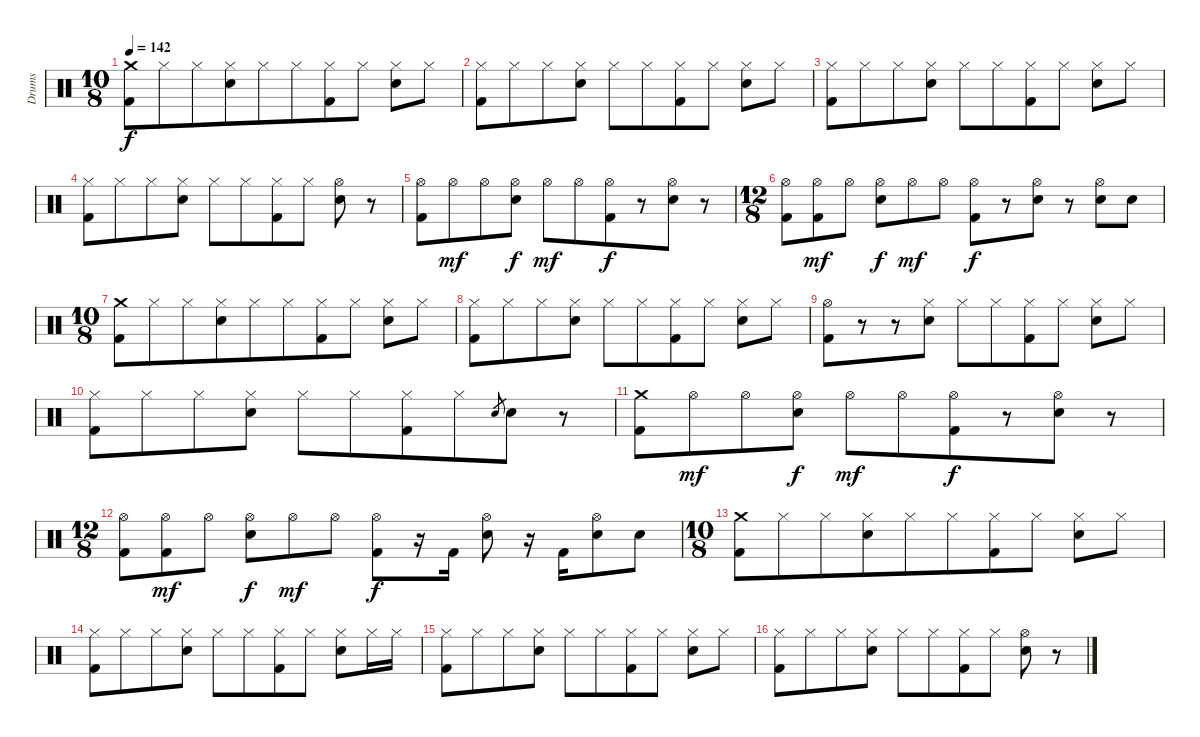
\track ("Drums" "Drums") {instrument percussion}
\staff {score}
\articulation defaults
\ts (10 8)
\tempo 142
\clef neutral
\ks c
("Crash medium (hit)" "Kick (hit) 2").8{dy f beam merge} "Hi-Hat (closed)".8{beam merge} "Hi-Hat (closed)".8 ("Hi-Hat (closed)" "Electric Snare (hit)").8{beam merge} "Hi-Hat (closed)".8{beam merge} "Hi-Hat (closed)".8 ("Hi-Hat (closed)" "Kick (hit) 2").8{beam merge} "Hi-Hat (closed)".8{beam split} ("Hi-Hat (closed)" "Electric Snare (hit)").8{beam merge} "Hi-Hat (closed)".8 |
("Hi-Hat (closed)" "Kick (hit) 2").8 "Hi-Hat (closed)".8 "Hi-Hat (closed)".8 ("Hi-Hat (closed)" "Electric Snare (hit)").8 "Hi-Hat (closed)".8 "Hi-Hat (closed)".8 ("Hi-Hat (closed)" "Kick (hit) 2").8{beam merge} "Hi-Hat (closed)".8{beam split} ("Hi-Hat (closed)" "Electric Snare (hit)").8{beam merge} "Hi-Hat (closed)".8 |
("Hi-Hat (closed)" "Kick (hit) 2").8 "Hi-Hat (closed)".8 "Hi-Hat (closed)".8 ("Hi-Hat (closed)" "Electric Snare (hit)").8 "Hi-Hat (closed)".8 "Hi-Hat (closed)".8 ("Hi-Hat (closed)" "Kick (hit) 2").8{beam merge} "Hi-Hat (closed)".8{beam split} ("Hi-Hat (closed)" "Electric Snare (hit)").8{beam merge} "Hi-Hat (closed)".8 |
("Hi-Hat (closed)" "Kick (hit) 2").8 "Hi-Hat (closed)".8 "Hi-Hat (closed)".8 ("Hi-Hat (closed)" "Electric Snare (hit)").8 "Hi-Hat (closed)".8 "Hi-Hat (closed)".8 ("Hi-Hat (closed)" "Kick (hit) 2").8{beam merge} "Hi-Hat (closed)".8{beam split} ("Hi-Hat (open)" "Electric Snare (hit)").8 r.8 |
("Hi-Hat (open)" "Kick (hit) 2").8 "Hi-Hat (open)".8{dy mf} "Hi-Hat (open)".8 ("Hi-Hat (open)" "Electric Snare (hit)").8{dy f} "Hi-Hat (open)".8{dy mf} "Hi-Hat (open)".8 ("Hi-Hat (open)" "Kick (hit) 2").8{dy f beam merge} r.8{beam split} ("Hi-Hat (open)" "Electric Snare (hit)").8 r.8 |
\ts (12 8)
("Hi-Hat (open)" "Kick (hit) 2").8 ("Hi-Hat (open)" "Kick (hit) 2").8{dy mf} "Hi-Hat (open)".8 ("Hi-Hat (open)" "Electric Snare (hit)").8{dy f} "Hi-Hat (open)".8{dy mf} "Hi-Hat (open)".8 ("Hi-Hat (open)" "Kick (hit) 2").8{dy f beam merge} r.8{beam split} ("Hi-Hat (open)" "Electric Snare (hit)").8 r.8 ("Hi-Hat (open)" "Electric Snare (hit)").8 "Electric Snare (hit)".8 |
\ts (10 8)
("Crash medium (hit)" "Kick (hit) 2").8{beam merge} "Hi-Hat (closed)".8{beam merge} "Hi-Hat (closed)".8 ("Hi-Hat (closed)" "Electric Snare (hit)").8{beam merge} "Hi-Hat (closed)".8{beam merge} "Hi-Hat (closed)".8 ("Hi-Hat (closed)" "Kick (hit) 2").8{beam merge} "Hi-Hat (closed)".8{beam split} ("Hi-Hat (closed)" "Electric Snare (hit)").8{beam merge} "Hi-Hat (closed)".8 |
("Hi-Hat (closed)" "Kick (hit) 2").8 "Hi-Hat (closed)".8 "Hi-Hat (closed)".8 ("Hi-Hat (closed)" "Electric Snare (hit)").8 "Hi-Hat (closed)".8 "Hi-Hat (closed)".8 ("Hi-Hat (closed)" "Kick (hit) 2").8{beam merge} "Hi-Hat (closed)".8{beam split} ("Hi-Hat (closed)" "Electric Snare (hit)").8{beam merge} "Hi-Hat (closed)".8 |
("Hi-Hat (open)" "Kick (hit) 2").8 r.8 r.8 ("Hi-Hat (closed)" "Electric Snare (hit)").8 "Hi-Hat (closed)".8 "Hi-Hat (closed)".8 ("Hi-Hat (closed)" "Kick (hit) 2").8{beam merge} "Hi-Hat (closed)".8{beam split} ("Hi-Hat (closed)" "Electric Snare (hit)").8{beam merge} "Hi-Hat (closed)".8 |
("Hi-Hat (closed)" "Kick (hit) 2").8 "Hi-Hat (closed)".8 "Hi-Hat (closed)".8 ("Hi-Hat (closed)" "Electric Snare (hit)").8 "Hi-Hat (closed)".8 "Hi-Hat (closed)".8 ("Hi-Hat (closed)" "Kick (hit) 2").8{beam merge} "Hi-Hat (closed)".8 "Electric Snare (hit)".8{gr beam split} "Electric Snare (hit)".8 r.8 |
("Crash medium (hit)" "Kick (hit) 2").8 "Hi-Hat (open)".8{dy mf} "Hi-Hat (open)".8 ("Hi-Hat (open)" "Electric Snare (hit)").8{dy f} "Hi-Hat (open)".8{dy mf} "Hi-Hat (open)".8 ("Hi-Hat (open)" "Kick (hit) 2").8{dy f beam merge} r.8{beam split} ("Hi-Hat (open)" "Electric Snare (hit)").8 r.8 |
\ts (12 8)
("Hi-Hat (open)" "Kick (hit) 2").8 ("Hi-Hat (open)" "Kick (hit) 2").8{dy mf} "Hi-Hat (open)".8 ("Hi-Hat (open)" "Electric Snare (hit)").8{dy f} "Hi-Hat (open)".8{dy mf} "Hi-Hat (open)".8 ("Hi-Hat (open)" "Kick (hit) 2").8{dy f} r.16{beam merge} "Kick (hit) 2".16{beam split} ("Hi-Hat (open)" "Electric Snare (hit)").8 r.16 "Kick (hit) 2".16 ("Hi-Hat (open)" "Electric Snare (hit)").8 "Electric Snare (hit)".8 |
\ts (10 8)
("Crash medium (hit)" "Kick (hit) 2").8{beam merge} "Hi-Hat (closed)".8{beam merge} "Hi-Hat (closed)".8 ("Hi-Hat (closed)" "Electric Snare (hit)").8{beam merge} "Hi-Hat (closed)".8{beam merge} "Hi-Hat (closed)".8 ("Hi-Hat (closed)" "Kick (hit) 2").8{beam merge} "Hi-Hat (closed)".8{beam split} ("Hi-Hat (closed)" "Electric Snare (hit)").8{beam merge} "Hi-Hat (closed)".8 |
("Hi-Hat (closed)" "Kick (hit) 2").8 "Hi-Hat (closed)".8 "Hi-Hat (closed)".8 ("Hi-Hat (closed)" "Electric Snare (hit)").8 "Hi-Hat (closed)".8 "Hi-Hat (closed)".8 ("Hi-Hat (closed)" "Kick (hit) 2").8{beam merge} "Hi-Hat (closed)".8{beam split} ("Hi-Hat (closed)" "Electric Snare (hit)").8 "Hi-Hat (closed)".16{beam merge} "Hi-Hat (closed)".16 |
("Hi-Hat (closed)" "Kick (hit) 2").8 "Hi-Hat (closed)".8 "Hi-Hat (closed)".8 ("Hi-Hat (closed)" "Electric Snare (hit)").8 "Hi-Hat (closed)".8 "Hi-Hat (closed)".8 ("Hi-Hat (closed)" "Kick (hit) 2").8{beam merge} "Hi-Hat (closed)".8{beam split} ("Hi-Hat (closed)" "Electric Snare (hit)").8{beam merge} "Hi-Hat (closed)".8 |
("Hi-Hat (closed)" "Kick (hit) 2").8 "Hi-Hat (closed)".8 "Hi-Hat (closed)".8 ("Hi-Hat (closed)" "Electric Snare (hit)").8 "Hi-Hat (closed)".8 "Hi-Hat (closed)".8 ("Hi-Hat (closed)" "Kick (hit) 2").8{beam merge} "Hi-Hat (closed)".8{beam split} ("Hi-Hat (open)" "Electric Snare (hit)").8 r.8
